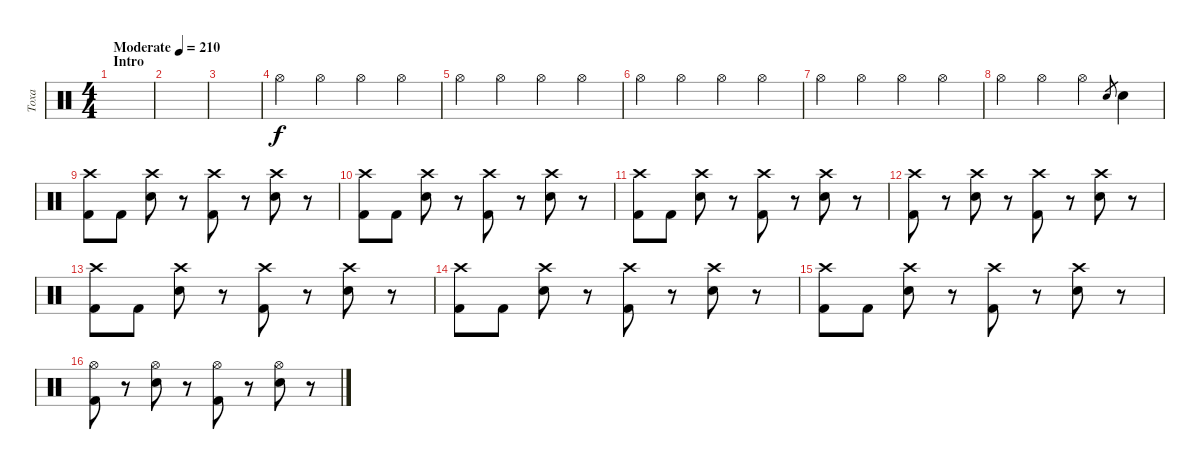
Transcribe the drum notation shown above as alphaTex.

\track ("Toxa" "Toxa") {instrument percussion}
\staff {score}
\articulation defaults
\ts (4 4)
\section ("" "Intro")
\tempo (210 "Moderate")
\clef neutral
\ks c
|
|
|
"Hi-Hat (open)".4 "Hi-Hat (open)".4 "Hi-Hat (open)".4 "Hi-Hat (open)".4 |
"Hi-Hat (open)".4 "Hi-Hat (open)".4 "Hi-Hat (open)".4 "Hi-Hat (open)".4 |
"Hi-Hat (open)".4 "Hi-Hat (open)".4 "Hi-Hat (open)".4 "Hi-Hat (open)".4 |
"Hi-Hat (open)".4 "Hi-Hat (open)".4 "Hi-Hat (open)".4 "Hi-Hat (open)".4 |
"Hi-Hat (open)".4 "Hi-Hat (open)".4 "Hi-Hat (open)".4 "Snare (hit) 2".8{gr} "Snare (hit) 2".4 |
("Kick (hit) 2" "Crash high (hit)").8 "Kick (hit) 2".8 ("Snare (hit) 2" "Crash high (hit)").8 r.8 ("Kick (hit) 2" "Crash high (hit)").8 r.8 ("Snare (hit) 2" "Crash high (hit)").8 r.8 |
("Kick (hit) 2" "Crash high (hit)").8 "Kick (hit) 2".8 ("Snare (hit) 2" "Crash high (hit)").8 r.8 ("Kick (hit) 2" "Crash high (hit)").8 r.8 ("Snare (hit) 2" "Crash high (hit)").8 r.8 |
("Kick (hit) 2" "Crash high (hit)").8 "Kick (hit) 2".8 ("Snare (hit) 2" "Crash high (hit)").8 r.8 ("Kick (hit) 2" "Crash high (hit)").8 r.8 ("Snare (hit) 2" "Crash high (hit)").8 r.8 |
("Kick (hit) 2" "Crash high (hit)").8 r.8 ("Snare (hit) 2" "Crash high (hit)").8 r.8 ("Kick (hit) 2" "Crash high (hit)").8 r.8 ("Snare (hit) 2" "Crash high (hit)").8 r.8 |
("Kick (hit) 2" "Crash high (hit)").8 "Kick (hit) 2".8 ("Snare (hit) 2" "Crash high (hit)").8 r.8 ("Kick (hit) 2" "Crash high (hit)").8 r.8 ("Snare (hit) 2" "Crash high (hit)").8 r.8 |
("Kick (hit) 2" "Crash high (hit)").8 "Kick (hit) 2".8 ("Snare (hit) 2" "Crash high (hit)").8 r.8 ("Kick (hit) 2" "Crash high (hit)").8 r.8 ("Snare (hit) 2" "Crash high (hit)").8 r.8 |
("Kick (hit) 2" "Crash high (hit)").8 "Kick (hit) 2".8 ("Snare (hit) 2" "Crash high (hit)").8 r.8 ("Kick (hit) 2" "Crash high (hit)").8 r.8 ("Snare (hit) 2" "Crash high (hit)").8 r.8 |
("Kick (hit) 2" "Hi-Hat (open)").8 r.8 ("Snare (hit) 2" "Hi-Hat (open)").8 r.8 ("Kick (hit) 2" "Hi-Hat (open)").8 r.8 ("Snare (hit) 2" "Hi-Hat (open)").8 r.8
